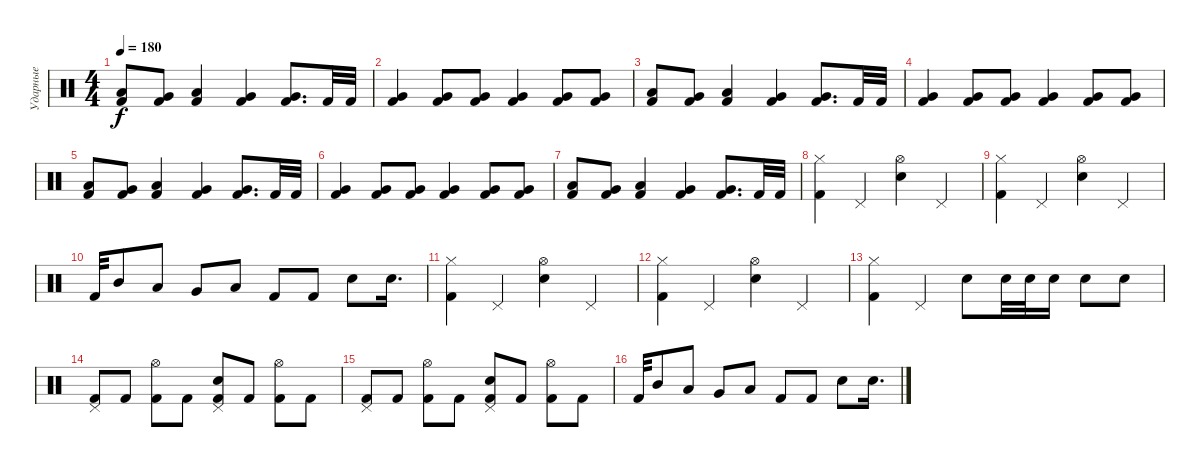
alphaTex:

\track ("Ударные" "Ударные") {instrument percussion}
\staff {score}
\articulation defaults
\ts (4 4)
\tempo 180
\clef neutral
\ks c
("Low Floor Tom (hit)" "Kick (hit) 2").8{dy f} ("Very Low Tom (hit)" "Kick (hit) 2").8 ("Low Tom (hit)" "Kick (hit) 2").4 ("Very Low Tom (hit)" "Kick (hit) 2").4 ("Very Low Tom (hit)" "Kick (hit) 2").8{d} "Kick (hit) 2".32 "Kick (hit) 2".32 |
("Very Low Tom (hit)" "Kick (hit) 2").4 ("Very Low Tom (hit)" "Kick (hit) 2").8 ("Very Low Tom (hit)" "Kick (hit) 2").8 ("Very Low Tom (hit)" "Kick (hit) 2").4 ("Kick (hit) 2" "Very Low Tom (hit)").8 ("Kick (hit) 2" "Very Low Tom (hit)").8 |
("Low Floor Tom (hit)" "Kick (hit) 2").8 ("Very Low Tom (hit)" "Kick (hit) 2").8 ("Low Tom (hit)" "Kick (hit) 2").4 ("Very Low Tom (hit)" "Kick (hit) 2").4 ("Very Low Tom (hit)" "Kick (hit) 2").8{d} "Kick (hit) 2".32 "Kick (hit) 2".32 |
("Very Low Tom (hit)" "Kick (hit) 2").4 ("Very Low Tom (hit)" "Kick (hit) 2").8 ("Very Low Tom (hit)" "Kick (hit) 2").8 ("Very Low Tom (hit)" "Kick (hit) 2").4 ("Kick (hit) 2" "Very Low Tom (hit)").8 ("Kick (hit) 2" "Very Low Tom (hit)").8 |
("Low Floor Tom (hit)" "Kick (hit) 2").8 ("Very Low Tom (hit)" "Kick (hit) 2").8 ("Low Tom (hit)" "Kick (hit) 2").4 ("Very Low Tom (hit)" "Kick (hit) 2").4 ("Very Low Tom (hit)" "Kick (hit) 2").8{d} "Kick (hit) 2".32 "Kick (hit) 2".32 |
("Very Low Tom (hit)" "Kick (hit) 2").4 ("Very Low Tom (hit)" "Kick (hit) 2").8 ("Very Low Tom (hit)" "Kick (hit) 2").8 ("Very Low Tom (hit)" "Kick (hit) 2").4 ("Kick (hit) 2" "Very Low Tom (hit)").8 ("Kick (hit) 2" "Very Low Tom (hit)").8 |
("Low Floor Tom (hit)" "Kick (hit) 2").8 ("Very Low Tom (hit)" "Kick (hit) 2").8 ("Low Tom (hit)" "Kick (hit) 2").4 ("Very Low Tom (hit)" "Kick (hit) 2").4 ("Very Low Tom (hit)" "Kick (hit) 2").8{d} "Kick (hit) 2".32 "Kick (hit) 2".32 |
("Hi-Hat (closed)" "Kick (hit) 2").4 "Pedal Hi-Hat (hit)".4 ("Hi-Hat (open)" "Electric Snare (hit)").4 "Pedal Hi-Hat (hit)".4 |
("Hi-Hat (closed)" "Kick (hit) 2").4 "Pedal Hi-Hat (hit)".4 ("Hi-Hat (open)" "Electric Snare (hit)").4 "Pedal Hi-Hat (hit)".4 |
"Kick (hit) 2".32 "Mid Tom (hit)".8 "Low Tom (hit)".8 "Very Low Tom (hit)".8 "Low Floor Tom (hit)".8 "Kick (hit) 2".8 "Kick (hit) 2".8 "Electric Snare (hit)".8 "Electric Snare (hit)".16{d} |
("Hi-Hat (closed)" "Kick (hit) 2").4 "Pedal Hi-Hat (hit)".4 ("Hi-Hat (open)" "Electric Snare (hit)").4 "Pedal Hi-Hat (hit)".4 |
("Hi-Hat (closed)" "Kick (hit) 2").4 "Pedal Hi-Hat (hit)".4 ("Hi-Hat (open)" "Electric Snare (hit)").4 "Pedal Hi-Hat (hit)".4 |
("Hi-Hat (closed)" "Kick (hit) 2").4 "Pedal Hi-Hat (hit)".4 "Electric Snare (hit)".8 "Electric Snare (hit)".32 "Electric Snare (hit)".32 "Electric Snare (hit)".16 "Electric Snare (hit)".8 "Electric Snare (hit)".8 |
("Kick (hit) 2" "Pedal Hi-Hat (hit)").8 "Kick (hit) 2".8 ("Kick (hit) 2" "Hi-Hat (open)").8 "Kick (hit) 2".8 ("Kick (hit) 2" "Electric Snare (hit)" "Pedal Hi-Hat (hit)").8 "Kick (hit) 2".8 ("Kick (hit) 2" "Hi-Hat (open)").8 "Kick (hit) 2".8 |
("Kick (hit) 2" "Pedal Hi-Hat (hit)").8 "Kick (hit) 2".8 ("Kick (hit) 2" "Hi-Hat (open)").8 "Kick (hit) 2".8 ("Kick (hit) 2" "Electric Snare (hit)" "Pedal Hi-Hat (hit)").8 "Kick (hit) 2".8 ("Kick (hit) 2" "Hi-Hat (open)").8 "Kick (hit) 2".8 |
"Kick (hit) 2".32 "Mid Tom (hit)".8 "Low Tom (hit)".8 "Very Low Tom (hit)".8 "Low Floor Tom (hit)".8 "Kick (hit) 2".8 "Kick (hit) 2".8 "Electric Snare (hit)".8 "Electric Snare (hit)".16{d}
